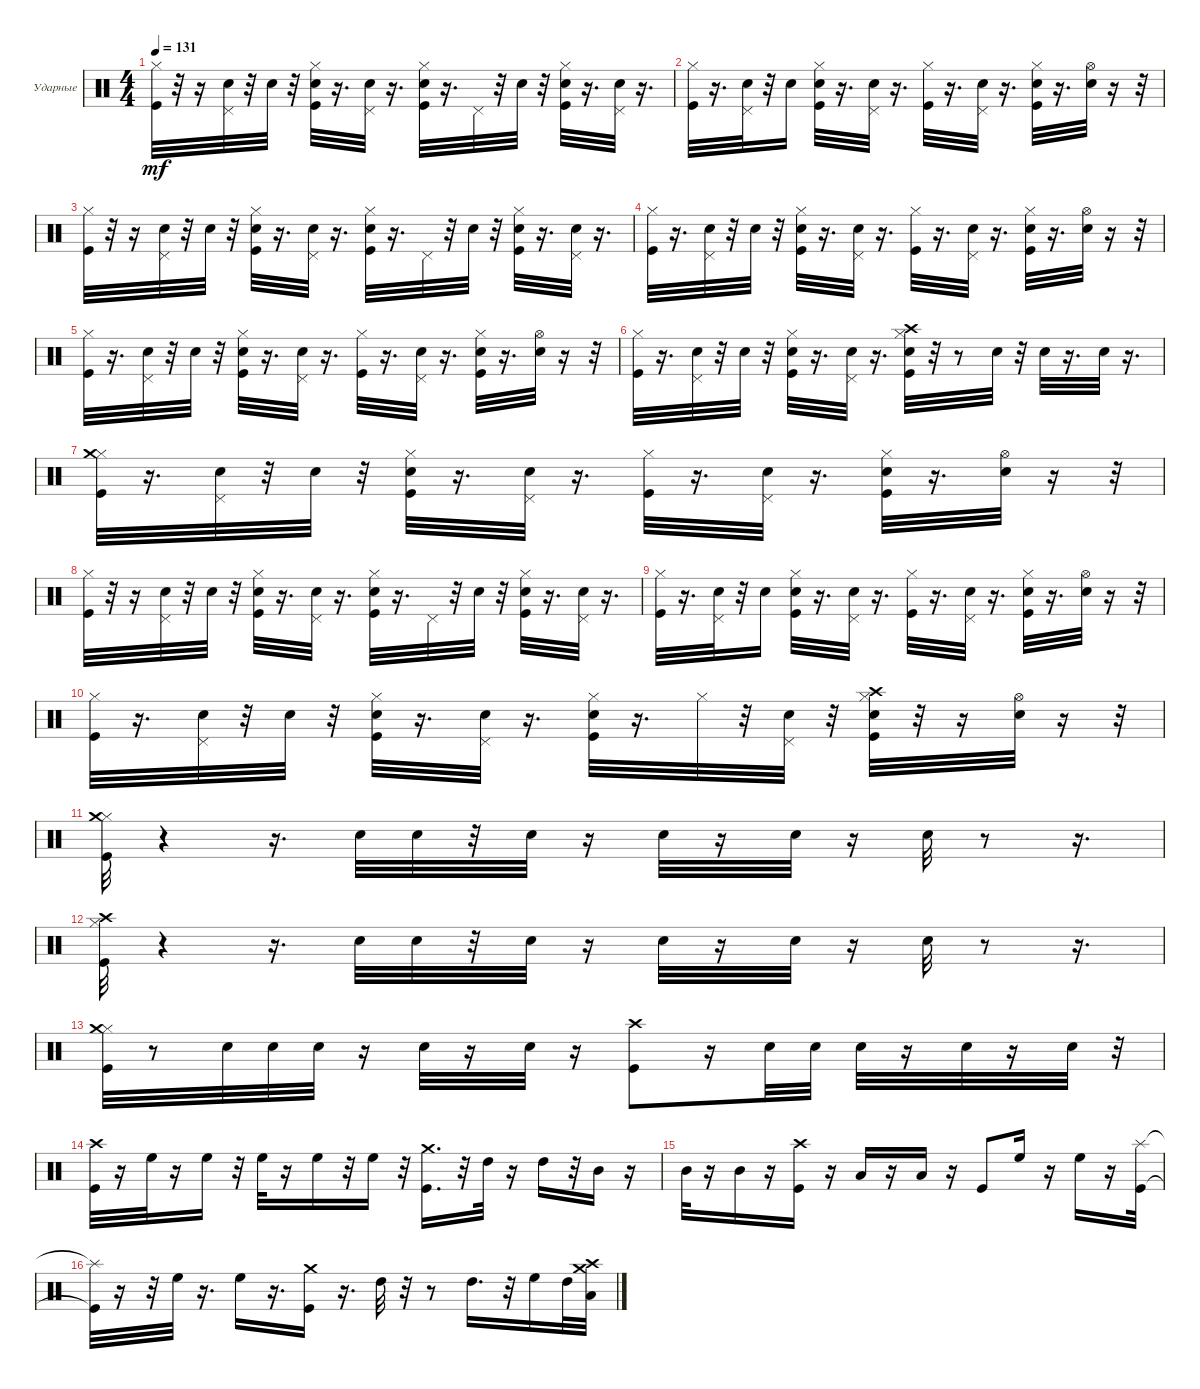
\bracketExtendMode groupsimilarinstruments
\firstSystemTrackNameOrientation horizontal
\otherSystemsTrackNameOrientation horizontal
\track ("Ударные" "Ударные") {instrument percussion}
\staff {score}
\articulation defaults
\ts (4 4)
\tempo 131
\clef neutral
\ks c
("Hi-Hat (closed)" "Kick (hit)").32{dy mf} r.32 r.16 ("Snare (hit) 2" "Pedal Hi-Hat (hit)").32 r.32 "Snare (hit) 2".32 r.32 ("Snare (hit) 2" "Hi-Hat (closed)" "Kick (hit)").32 r.16{d} ("Snare (hit) 2" "Pedal Hi-Hat (hit)").32 r.16{d} ("Snare (hit) 2" "Hi-Hat (closed)" "Kick (hit)").32 r.16{d} "Pedal Hi-Hat (hit)".32 r.32 "Snare (hit) 2".32 r.32 ("Snare (hit) 2" "Hi-Hat (closed)" "Kick (hit)").32 r.16{d} ("Snare (hit) 2" "Pedal Hi-Hat (hit)").32 r.16{d} |
("Hi-Hat (closed)" "Kick (hit)").32 r.16{d} ("Snare (hit) 2" "Pedal Hi-Hat (hit)").32 r.32 "Snare (hit) 2".16 ("Snare (hit) 2" "Hi-Hat (closed)" "Kick (hit)").32 r.16{d} ("Snare (hit) 2" "Pedal Hi-Hat (hit)").32 r.16{d} ("Kick (hit)" "Hi-Hat (closed)").32 r.16{d} ("Snare (hit) 2" "Pedal Hi-Hat (hit)").32 r.16{d} ("Hi-Hat (closed)" "Snare (hit) 2" "Kick (hit)").32 r.16{d} ("Snare (hit) 2" "Hi-Hat (open)").32 r.16 r.32 |
("Hi-Hat (closed)" "Kick (hit)").32 r.32 r.16 ("Snare (hit) 2" "Pedal Hi-Hat (hit)").32 r.32 "Snare (hit) 2".32 r.32 ("Snare (hit) 2" "Hi-Hat (closed)" "Kick (hit)").32 r.16{d} ("Snare (hit) 2" "Pedal Hi-Hat (hit)").32 r.16{d} ("Snare (hit) 2" "Hi-Hat (closed)" "Kick (hit)").32 r.16{d} "Pedal Hi-Hat (hit)".32 r.32 "Snare (hit) 2".32 r.32 ("Hi-Hat (closed)" "Snare (hit) 2" "Kick (hit)").32 r.16{d} ("Snare (hit) 2" "Pedal Hi-Hat (hit)").32 r.16{d} |
("Hi-Hat (closed)" "Kick (hit)").32 r.16{d} ("Snare (hit) 2" "Pedal Hi-Hat (hit)").32 r.32 "Snare (hit) 2".32 r.32 ("Snare (hit) 2" "Hi-Hat (closed)" "Kick (hit)").32 r.16{d} ("Snare (hit) 2" "Pedal Hi-Hat (hit)").32 r.16{d} ("Kick (hit)" "Hi-Hat (closed)").32 r.16{d} ("Snare (hit) 2" "Pedal Hi-Hat (hit)").32 r.16{d} ("Hi-Hat (closed)" "Snare (hit) 2" "Kick (hit)").32 r.16{d} ("Snare (hit) 2" "Hi-Hat (open)").32 r.16 r.32 |
("Hi-Hat (closed)" "Kick (hit)").32 r.16{d} ("Snare (hit) 2" "Pedal Hi-Hat (hit)").32 r.32 "Snare (hit) 2".32 r.32 ("Snare (hit) 2" "Hi-Hat (closed)" "Kick (hit)").32 r.16{d} ("Snare (hit) 2" "Pedal Hi-Hat (hit)").32 r.16{d} ("Hi-Hat (closed)" "Kick (hit)").32 r.16{d} ("Snare (hit) 2" "Pedal Hi-Hat (hit)").32 r.16{d} ("Hi-Hat (closed)" "Snare (hit) 2" "Kick (hit)").32 r.16{d} ("Snare (hit) 2" "Hi-Hat (open)").32 r.16 r.32 |
("Hi-Hat (closed)" "Kick (hit)").32 r.16{d} ("Snare (hit) 2" "Pedal Hi-Hat (hit)").32 r.32 "Snare (hit) 2".32 r.32 ("Snare (hit) 2" "Hi-Hat (closed)" "Kick (hit)").32 r.16{d} ("Snare (hit) 2" "Pedal Hi-Hat (hit)").32 r.16{d} ("Snare (hit) 2" "Crash high (hit)" "Hi-Hat (closed)" "Kick (hit)").32 r.32 r.8 "Snare (hit) 2".32 r.32 "Snare (hit) 2".32 r.16{d} "Snare (hit) 2".32 r.16{d} |
("Kick (hit)" "Hi-Hat (closed)" "Crash medium (hit)").32 r.16{d} ("Snare (hit) 2" "Pedal Hi-Hat (hit)").32 r.32 "Snare (hit) 2".32 r.32 ("Hi-Hat (closed)" "Snare (hit) 2" "Kick (hit)").32 r.16{d} ("Snare (hit) 2" "Pedal Hi-Hat (hit)").32 r.16{d} ("Hi-Hat (closed)" "Kick (hit)").32 r.16{d} ("Snare (hit) 2" "Pedal Hi-Hat (hit)").32 r.16{d} ("Hi-Hat (closed)" "Snare (hit) 2" "Kick (hit)").32 r.16{d} ("Snare (hit) 2" "Hi-Hat (open)").32 r.16 r.32 |
("Hi-Hat (closed)" "Kick (hit)").32 r.32 r.16 ("Snare (hit) 2" "Pedal Hi-Hat (hit)").32 r.32 "Snare (hit) 2".32 r.32 ("Snare (hit) 2" "Hi-Hat (closed)" "Kick (hit)").32 r.16{d} ("Snare (hit) 2" "Pedal Hi-Hat (hit)").32 r.16{d} ("Snare (hit) 2" "Hi-Hat (closed)" "Kick (hit)").32 r.16{d} "Pedal Hi-Hat (hit)".32 r.32 "Snare (hit) 2".32 r.32 ("Snare (hit) 2" "Hi-Hat (closed)" "Kick (hit)").32 r.16{d} ("Snare (hit) 2" "Pedal Hi-Hat (hit)").32 r.16{d} |
("Hi-Hat (closed)" "Kick (hit)").32 r.16{d} ("Snare (hit) 2" "Pedal Hi-Hat (hit)").32 r.32 "Snare (hit) 2".16 ("Snare (hit) 2" "Hi-Hat (closed)" "Kick (hit)").32 r.16{d} ("Snare (hit) 2" "Pedal Hi-Hat (hit)").32 r.16{d} ("Kick (hit)" "Hi-Hat (closed)").32 r.16{d} ("Snare (hit) 2" "Pedal Hi-Hat (hit)").32 r.16{d} ("Hi-Hat (closed)" "Snare (hit) 2" "Kick (hit)").32 r.16{d} ("Snare (hit) 2" "Hi-Hat (open)").32 r.16 r.32 |
("Hi-Hat (closed)" "Kick (hit)").32 r.16{d} ("Snare (hit) 2" "Pedal Hi-Hat (hit)").32 r.32 "Snare (hit) 2".32 r.32 ("Snare (hit) 2" "Hi-Hat (closed)" "Kick (hit)").32 r.16{d} ("Snare (hit) 2" "Pedal Hi-Hat (hit)").32 r.16{d} ("Snare (hit) 2" "Hi-Hat (closed)" "Kick (hit)").32 r.16{d} "Hi-Hat (closed)".32 r.32 ("Snare (hit) 2" "Pedal Hi-Hat (hit)").32 r.32 ("Crash high (hit)" "Hi-Hat (closed)" "Snare (hit) 2" "Kick (hit)").32 r.32 r.16 ("Snare (hit) 2" "Hi-Hat (open)").32 r.16 r.32 |
("Kick (hit)" "Hi-Hat (closed)" "Crash medium (hit)").32 r.4 r.16{d} "Snare (hit) 2".32 "Snare (hit) 2".32 r.32 "Snare (hit) 2".32 r.16 "Snare (hit) 2".32 r.16 "Snare (hit) 2".32 r.16 "Snare (hit) 2".32 r.8 r.16{d} |
("Kick (hit)" "Hi-Hat (closed)" "Crash high (hit)").32 r.4 r.16{d} "Snare (hit) 2".32 "Snare (hit) 2".32 r.32 "Snare (hit) 2".32 r.16 "Snare (hit) 2".32 r.16 "Snare (hit) 2".32 r.16 "Snare (hit) 2".32 r.8 r.16{d} |
("Kick (hit)" "Hi-Hat (closed)" "Crash medium (hit)").32 r.8 "Snare (hit) 2".32 "Snare (hit) 2".32 "Snare (hit) 2".32 r.16 "Snare (hit) 2".32 r.16 "Snare (hit) 2".32 r.16 ("Crash high (hit)" "Kick (hit)").8 r.16 "Snare (hit) 2".32 "Snare (hit) 2".32 "Snare (hit) 2".32 r.16 "Snare (hit) 2".32 r.16 "Snare (hit) 2".32 r.32 |
("Crash high (hit)" "Kick (hit)").32 r.16 "High Floor Tom (hit)".32 r.16 "High Floor Tom (hit)".16 r.32 "High Floor Tom (hit)".32 r.16 "High Floor Tom (hit)".16 r.32 "High Floor Tom (hit)".16 r.32 ("Crash medium (hit)" "Kick (hit)").16{d} r.32 "High Tom (hit)".32 r.16 "High Tom (hit)".16 r.32 "Mid Tom (hit)".16 r.16 |
"Mid Tom (hit)".32 r.16 "Mid Tom (hit)".16 r.16 ("Kick (hit)" "Crash high (hit)").16 r.16 "Low Tom (hit)".16 r.16 "Low Tom (hit)".16 r.16 "Kick (hit)".8 "High Floor Tom (hit)".16 r.16 "High Floor Tom (hit)".16 r.16 ("Splash (hit)" "Kick (hit)").32 |
("Splash (hit)"{t} "Kick (hit)"{t}).32 r.16 r.32 "High Floor Tom (hit)".32 r.16{d} "High Floor Tom (hit)".16 r.16{d} ("Crash medium (hit)" "Kick (hit)").16 r.16{d} "High Tom (hit)".32 r.32 r.8 "High Tom (hit)".16{d} r.32 "High Floor Tom (hit)".16 "High Tom (hit)".32 ("Crash high (hit)" "Low Tom (hit)" "Crash medium (hit)").32
